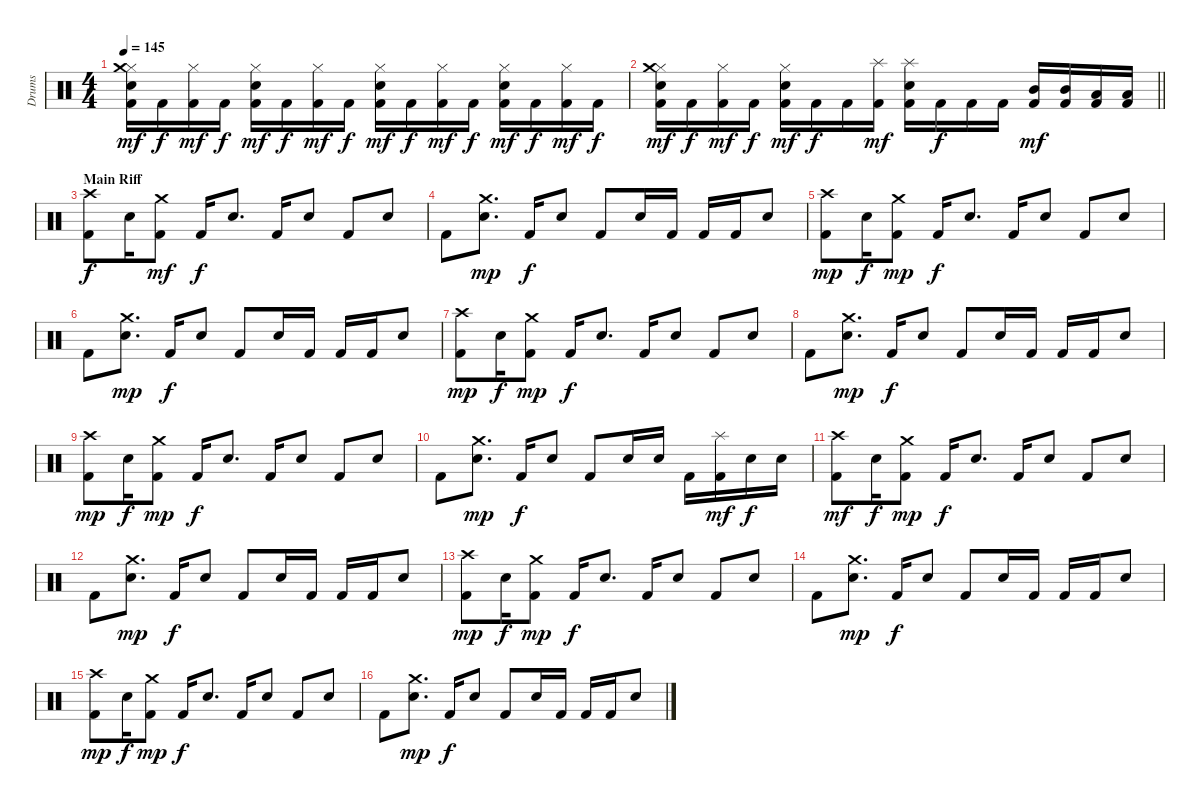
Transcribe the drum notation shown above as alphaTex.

\track ("Drums" "Drums") {instrument percussion}
\staff {score}
\articulation defaults
\ts (4 4)
\tempo 145
\clef neutral
\ks c
("Hi-Hat (closed)" "Crash medium (hit)" "Snare (hit) 2" "Kick (hit) 2").16{dy mf} "Kick (hit) 2".16{dy f} ("Hi-Hat (closed)" "Kick (hit) 2").16{dy mf} "Kick (hit) 2".16{dy f} ("Hi-Hat (closed)" "Snare (hit) 2" "Kick (hit) 2").16{dy mf} "Kick (hit) 2".16{dy f} ("Hi-Hat (closed)" "Kick (hit) 2").16{dy mf} "Kick (hit) 2".16{dy f} ("Hi-Hat (closed)" "Snare (hit) 2" "Kick (hit) 2").16{dy mf} "Kick (hit) 2".16{dy f} ("Hi-Hat (closed)" "Kick (hit) 2").16{dy mf} "Kick (hit) 2".16{dy f} ("Hi-Hat (closed)" "Snare (hit) 2" "Kick (hit) 2").16{dy mf} "Kick (hit) 2".16{dy f} ("Hi-Hat (closed)" "Kick (hit) 2").16{dy mf} "Kick (hit) 2".16{dy f} |
\barLineRight lightlight
("Hi-Hat (closed)" "Crash medium (hit)" "Snare (hit) 2" "Kick (hit) 2").16{dy mf} "Kick (hit) 2".16{dy f} ("Hi-Hat (closed)" "Kick (hit) 2").16{dy mf} "Kick (hit) 2".16{dy f} ("Hi-Hat (closed)" "Snare (hit) 2" "Kick (hit) 2").16{dy mf} "Kick (hit) 2".16{dy f} "Kick (hit) 2".16 ("Splash (hit)" "Kick (hit) 2").16{dy mf} ("Splash (hit)" "Snare (hit) 2" "Kick (hit) 2").16 "Kick (hit) 2".16{dy f} "Kick (hit) 2".16 "Kick (hit) 2".16 ("Mid Tom (hit)" "Kick (hit) 2").16{dy mf} ("Mid Tom (hit)" "Kick (hit) 2").16 ("Low Tom (hit)" "Kick (hit) 2").16 ("Low Floor Tom (hit)" "Kick (hit) 2").16 |
\section ("" "Main Riff")
("Crash high (hit)" "Kick (hit) 2").8{dy f} "Snare (hit) 2".16 ("Crash medium (hit)" "Kick (hit) 2").8{dy mf} "Kick (hit) 2".16{dy f} "Snare (hit) 2".8{d} "Kick (hit) 2".16 "Snare (hit) 2".8 "Kick (hit) 2".8 "Snare (hit) 2".8 |
"Kick (hit) 2".8 ("Crash medium (hit)" "Snare (hit) 2").8{d dy mp} "Kick (hit) 2".16{dy f} "Snare (hit) 2".8 "Kick (hit) 2".8 "Snare (hit) 2".16 "Kick (hit) 2".16 "Kick (hit) 2".16 "Kick (hit) 2".16 "Snare (hit) 2".8 |
("Crash high (hit)" "Kick (hit) 2").8{dy mp} "Snare (hit) 2".16{dy f} ("Crash medium (hit)" "Kick (hit) 2").8{dy mp} "Kick (hit) 2".16{dy f} "Snare (hit) 2".8{d} "Kick (hit) 2".16 "Snare (hit) 2".8 "Kick (hit) 2".8 "Snare (hit) 2".8 |
"Kick (hit) 2".8 ("Crash medium (hit)" "Snare (hit) 2").8{d dy mp} "Kick (hit) 2".16{dy f} "Snare (hit) 2".8 "Kick (hit) 2".8 "Snare (hit) 2".16 "Kick (hit) 2".16 "Kick (hit) 2".16 "Kick (hit) 2".16 "Snare (hit) 2".8 |
("Crash high (hit)" "Kick (hit) 2").8{dy mp} "Snare (hit) 2".16{dy f} ("Crash medium (hit)" "Kick (hit) 2").8{dy mp} "Kick (hit) 2".16{dy f} "Snare (hit) 2".8{d} "Kick (hit) 2".16 "Snare (hit) 2".8 "Kick (hit) 2".8 "Snare (hit) 2".8 |
"Kick (hit) 2".8 ("Crash medium (hit)" "Snare (hit) 2").8{d dy mp} "Kick (hit) 2".16{dy f} "Snare (hit) 2".8 "Kick (hit) 2".8 "Snare (hit) 2".16 "Kick (hit) 2".16 "Kick (hit) 2".16 "Kick (hit) 2".16 "Snare (hit) 2".8 |
("Crash high (hit)" "Kick (hit) 2").8{dy mp} "Snare (hit) 2".16{dy f} ("Crash medium (hit)" "Kick (hit) 2").8{dy mp} "Kick (hit) 2".16{dy f} "Snare (hit) 2".8{d} "Kick (hit) 2".16 "Snare (hit) 2".8 "Kick (hit) 2".8 "Snare (hit) 2".8 |
"Kick (hit) 2".8 ("Crash medium (hit)" "Snare (hit) 2").8{d dy mp} "Kick (hit) 2".16{dy f} "Snare (hit) 2".8 "Kick (hit) 2".8 "Snare (hit) 2".16 "Snare (hit) 2".16 "Kick (hit) 2".16 ("Splash (hit)" "Kick (hit) 2").16{dy mf} "Snare (hit) 2".16{dy f} "Snare (hit) 2".16 |
("Crash high (hit)" "Kick (hit) 2").8{dy mf} "Snare (hit) 2".16{dy f} ("Crash medium (hit)" "Kick (hit) 2").8{dy mp} "Kick (hit) 2".16{dy f} "Snare (hit) 2".8{d} "Kick (hit) 2".16 "Snare (hit) 2".8 "Kick (hit) 2".8 "Snare (hit) 2".8 |
"Kick (hit) 2".8 ("Crash medium (hit)" "Snare (hit) 2").8{d dy mp} "Kick (hit) 2".16{dy f} "Snare (hit) 2".8 "Kick (hit) 2".8 "Snare (hit) 2".16 "Kick (hit) 2".16 "Kick (hit) 2".16 "Kick (hit) 2".16 "Snare (hit) 2".8 |
("Crash high (hit)" "Kick (hit) 2").8{dy mp} "Snare (hit) 2".16{dy f} ("Crash medium (hit)" "Kick (hit) 2").8{dy mp} "Kick (hit) 2".16{dy f} "Snare (hit) 2".8{d} "Kick (hit) 2".16 "Snare (hit) 2".8 "Kick (hit) 2".8 "Snare (hit) 2".8 |
"Kick (hit) 2".8 ("Crash medium (hit)" "Snare (hit) 2").8{d dy mp} "Kick (hit) 2".16{dy f} "Snare (hit) 2".8 "Kick (hit) 2".8 "Snare (hit) 2".16 "Kick (hit) 2".16 "Kick (hit) 2".16 "Kick (hit) 2".16 "Snare (hit) 2".8 |
("Crash high (hit)" "Kick (hit) 2").8{dy mp} "Snare (hit) 2".16{dy f} ("Crash medium (hit)" "Kick (hit) 2").8{dy mp} "Kick (hit) 2".16{dy f} "Snare (hit) 2".8{d} "Kick (hit) 2".16 "Snare (hit) 2".8 "Kick (hit) 2".8 "Snare (hit) 2".8 |
"Kick (hit) 2".8 ("Crash medium (hit)" "Snare (hit) 2").8{d dy mp} "Kick (hit) 2".16{dy f} "Snare (hit) 2".8 "Kick (hit) 2".8 "Snare (hit) 2".16 "Kick (hit) 2".16 "Kick (hit) 2".16 "Kick (hit) 2".16 "Snare (hit) 2".8
